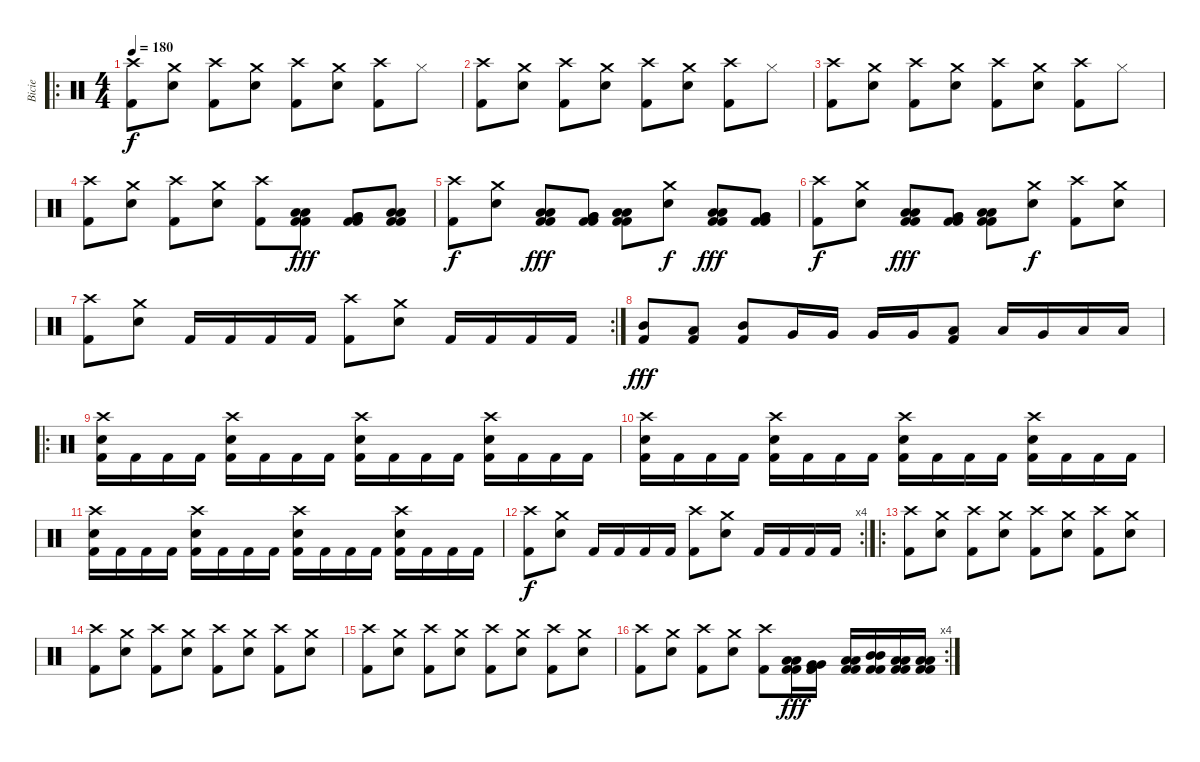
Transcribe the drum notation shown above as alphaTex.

\track ("Bicie" "Bicie") {instrument percussion}
\staff {score}
\articulation defaults
\ro
\ts (4 4)
\tempo 180
\clef neutral
\ks c
("Crash high (hit)" "Kick (hit) 2").8{dy f} ("Crash medium (hit)" "Electric Snare (hit)").8 ("Crash high (hit)" "Kick (hit) 2").8 ("Crash medium (hit)" "Electric Snare (hit)").8 ("Crash high (hit)" "Kick (hit) 2").8 ("Crash medium (hit)" "Electric Snare (hit)").8 ("Crash high (hit)" "Kick (hit) 2").8 "Hi-Hat (closed)".8 |
("Crash high (hit)" "Kick (hit) 2").8 ("Crash medium (hit)" "Electric Snare (hit)").8 ("Crash high (hit)" "Kick (hit) 2").8 ("Crash medium (hit)" "Electric Snare (hit)").8 ("Crash high (hit)" "Kick (hit) 2").8 ("Crash medium (hit)" "Electric Snare (hit)").8 ("Crash high (hit)" "Kick (hit) 2").8 "Hi-Hat (closed)".8 |
("Crash high (hit)" "Kick (hit) 2").8 ("Crash medium (hit)" "Electric Snare (hit)").8 ("Crash high (hit)" "Kick (hit) 2").8 ("Crash medium (hit)" "Electric Snare (hit)").8 ("Crash high (hit)" "Kick (hit) 2").8 ("Crash medium (hit)" "Electric Snare (hit)").8 ("Crash high (hit)" "Kick (hit) 2").8 "Hi-Hat (closed)".8 |
("Crash high (hit)" "Kick (hit) 2").8 ("Crash medium (hit)" "Electric Snare (hit)").8 ("Crash high (hit)" "Kick (hit) 2").8 ("Crash medium (hit)" "Electric Snare (hit)").8 ("Crash high (hit)" "Kick (hit) 2").8 ("Low Tom (hit)" "Kick (hit) 2" "Low Tom (hit)" "Kick (hit) 2").8{dy fff} ("Very Low Tom (hit)" "Kick (hit) 2" "Very Low Tom (hit)" "Kick (hit) 2").8 ("Low Tom (hit)" "Kick (hit) 2" "Low Tom (hit)" "Kick (hit) 2").8 |
("Crash high (hit)" "Kick (hit) 2").8{dy f} ("Crash medium (hit)" "Electric Snare (hit)").8 ("Low Tom (hit)" "Kick (hit) 2" "Low Tom (hit)" "Kick (hit) 2").8{dy fff} ("Very Low Tom (hit)" "Kick (hit) 2" "Very Low Tom (hit)" "Kick (hit) 2").8 ("Low Tom (hit)" "Kick (hit) 2" "Low Tom (hit)" "Kick (hit) 2").8 ("Crash medium (hit)" "Electric Snare (hit)").8{dy f} ("Low Tom (hit)" "Kick (hit) 2" "Low Tom (hit)" "Kick (hit) 2").8{dy fff} ("Very Low Tom (hit)" "Kick (hit) 2" "Very Low Tom (hit)" "Kick (hit) 2").8 |
("Crash high (hit)" "Kick (hit) 2").8{dy f} ("Crash medium (hit)" "Electric Snare (hit)").8 ("Low Tom (hit)" "Kick (hit) 2" "Low Tom (hit)" "Kick (hit) 2").8{dy fff} ("Very Low Tom (hit)" "Kick (hit) 2" "Very Low Tom (hit)" "Kick (hit) 2").8 ("Low Floor Tom (hit)" "Kick (hit) 2" "Low Floor Tom (hit)" "Kick (hit) 2").8 ("Crash medium (hit)" "Electric Snare (hit)").8{dy f} ("Crash high (hit)" "Kick (hit) 2").8 ("Crash medium (hit)" "Electric Snare (hit)").8 |
\rc 2
("Crash high (hit)" "Kick (hit) 2").8 ("Crash medium (hit)" "Electric Snare (hit)").8 "Kick (hit) 2".16 "Kick (hit) 2".16 "Kick (hit) 2".16 "Kick (hit) 2".16 ("Crash high (hit)" "Kick (hit) 2").8 ("Crash medium (hit)" "Electric Snare (hit)").8 "Kick (hit) 2".16 "Kick (hit) 2".16 "Kick (hit) 2".16 "Kick (hit) 2".16 |
("Kick (hit) 2" "Mid Tom (hit)").8{dy fff} ("Kick (hit) 2" "Low Floor Tom (hit)").8 ("Kick (hit) 2" "Mid Tom (hit)").8 "Very Low Tom (hit)".16 "Very Low Tom (hit)".16 "Very Low Tom (hit)".16 "Very Low Tom (hit)".16 ("Kick (hit) 2" "Low Floor Tom (hit)").8 "Low Tom (hit)".16 "Very Low Tom (hit)".16 "Low Floor Tom (hit)".16 "Low Floor Tom (hit)".16 |
\ro
("Crash high (hit)" "Electric Snare (hit)" "Kick (hit) 2").16 "Kick (hit) 2".16 "Kick (hit) 2".16 "Kick (hit) 2".16 ("Crash high (hit)" "Electric Snare (hit)" "Kick (hit) 2").16 "Kick (hit) 2".16 "Kick (hit) 2".16 "Kick (hit) 2".16 ("Crash high (hit)" "Electric Snare (hit)" "Kick (hit) 2").16 "Kick (hit) 2".16 "Kick (hit) 2".16 "Kick (hit) 2".16 ("Crash high (hit)" "Electric Snare (hit)" "Kick (hit) 2").16 "Kick (hit) 2".16 "Kick (hit) 2".16 "Kick (hit) 2".16 |
("Crash high (hit)" "Electric Snare (hit)" "Kick (hit) 2").16 "Kick (hit) 2".16 "Kick (hit) 2".16 "Kick (hit) 2".16 ("Crash high (hit)" "Electric Snare (hit)" "Kick (hit) 2").16 "Kick (hit) 2".16 "Kick (hit) 2".16 "Kick (hit) 2".16 ("Crash high (hit)" "Electric Snare (hit)" "Kick (hit) 2").16 "Kick (hit) 2".16 "Kick (hit) 2".16 "Kick (hit) 2".16 ("Crash high (hit)" "Electric Snare (hit)" "Kick (hit) 2").16 "Kick (hit) 2".16 "Kick (hit) 2".16 "Kick (hit) 2".16 |
("Crash high (hit)" "Electric Snare (hit)" "Kick (hit) 2").16 "Kick (hit) 2".16 "Kick (hit) 2".16 "Kick (hit) 2".16 ("Crash high (hit)" "Electric Snare (hit)" "Kick (hit) 2").16 "Kick (hit) 2".16 "Kick (hit) 2".16 "Kick (hit) 2".16 ("Crash high (hit)" "Electric Snare (hit)" "Kick (hit) 2").16 "Kick (hit) 2".16 "Kick (hit) 2".16 "Kick (hit) 2".16 ("Crash high (hit)" "Electric Snare (hit)" "Kick (hit) 2").16 "Kick (hit) 2".16 "Kick (hit) 2".16 "Kick (hit) 2".16 |
\rc 4
("Crash high (hit)" "Kick (hit) 2").8{dy f} ("Crash medium (hit)" "Electric Snare (hit)").8 "Kick (hit) 2".16 "Kick (hit) 2".16 "Kick (hit) 2".16 "Kick (hit) 2".16 ("Crash high (hit)" "Kick (hit) 2").8 ("Crash medium (hit)" "Electric Snare (hit)").8 "Kick (hit) 2".16 "Kick (hit) 2".16 "Kick (hit) 2".16 "Kick (hit) 2".16 |
\ro
("Crash high (hit)" "Kick (hit) 2").8 ("Crash medium (hit)" "Electric Snare (hit)").8 ("Crash high (hit)" "Kick (hit) 2").8 ("Crash medium (hit)" "Electric Snare (hit)").8 ("Crash high (hit)" "Kick (hit) 2").8 ("Crash medium (hit)" "Electric Snare (hit)").8 ("Crash high (hit)" "Kick (hit) 2").8 ("Crash medium (hit)" "Electric Snare (hit)").8 |
("Crash high (hit)" "Kick (hit) 2").8 ("Crash medium (hit)" "Electric Snare (hit)").8 ("Crash high (hit)" "Kick (hit) 2").8 ("Crash medium (hit)" "Electric Snare (hit)").8 ("Crash high (hit)" "Kick (hit) 2").8 ("Crash medium (hit)" "Electric Snare (hit)").8 ("Crash high (hit)" "Kick (hit) 2").8 ("Crash medium (hit)" "Electric Snare (hit)").8 |
("Crash high (hit)" "Kick (hit) 2").8 ("Crash medium (hit)" "Electric Snare (hit)").8 ("Crash high (hit)" "Kick (hit) 2").8 ("Crash medium (hit)" "Electric Snare (hit)").8 ("Crash high (hit)" "Kick (hit) 2").8 ("Crash medium (hit)" "Electric Snare (hit)").8 ("Crash high (hit)" "Kick (hit) 2").8 ("Crash medium (hit)" "Electric Snare (hit)").8 |
\rc 4
("Crash high (hit)" "Kick (hit) 2").8 ("Crash medium (hit)" "Electric Snare (hit)").8 ("Crash high (hit)" "Kick (hit) 2").8 ("Crash medium (hit)" "Electric Snare (hit)").8 ("Crash high (hit)" "Kick (hit) 2").8 ("Low Tom (hit)" "Kick (hit) 2" "Low Tom (hit)" "Kick (hit) 2").16{dy fff} ("Very Low Tom (hit)" "Kick (hit) 2" "Very Low Tom (hit)" "Kick (hit) 2").16 ("Low Tom (hit)" "Kick (hit) 2" "Low Tom (hit)" "Kick (hit) 2").16 ("Mid Tom (hit)" "Kick (hit) 2" "Mid Tom (hit)" "Kick (hit) 2").16 ("Low Tom (hit)" "Kick (hit) 2" "Low Tom (hit)" "Kick (hit) 2").16 ("Low Floor Tom (hit)" "Kick (hit) 2" "Low Floor Tom (hit)" "Kick (hit) 2").16
